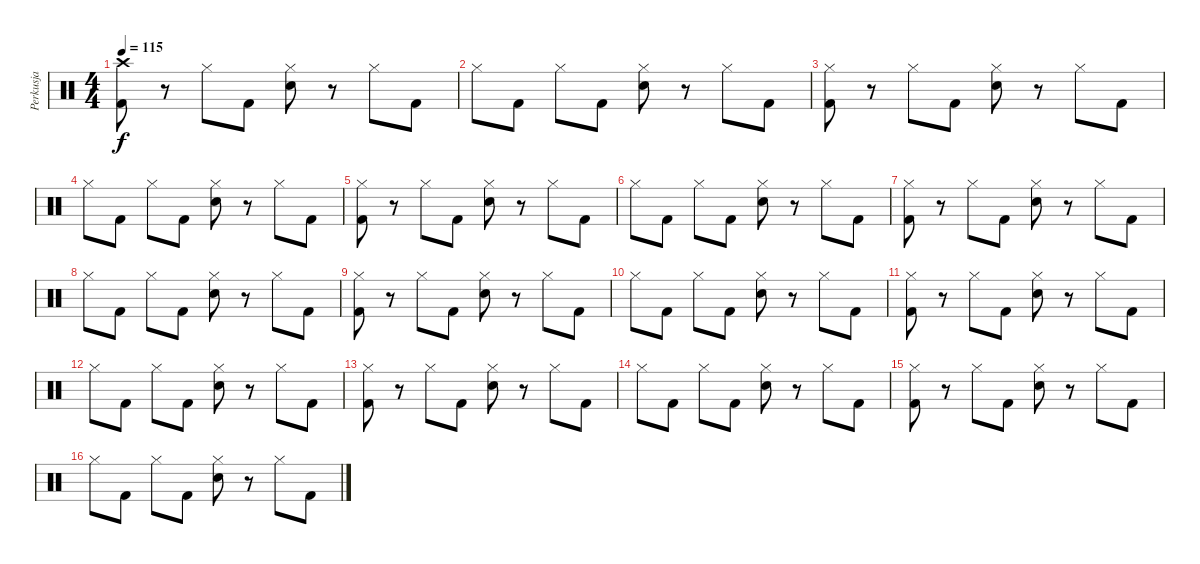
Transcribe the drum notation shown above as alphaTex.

\track ("Perkusja" "Perkusja") {instrument percussion}
\staff {score}
\articulation defaults
\ts (4 4)
\tempo 115
\clef neutral
\ks c
("Crash high (hit)" "Kick (hit) 2").8{dy f} r.8 "Hi-Hat (closed)".8 "Kick (hit) 2".8 ("Hi-Hat (closed)" "Electric Snare (hit)").8 r.8 "Hi-Hat (closed)".8 "Kick (hit) 2".8 |
"Hi-Hat (closed)".8 "Kick (hit) 2".8 "Hi-Hat (closed)".8 "Kick (hit) 2".8 ("Hi-Hat (closed)" "Electric Snare (hit)").8 r.8 "Hi-Hat (closed)".8 "Kick (hit) 2".8 |
("Hi-Hat (closed)" "Kick (hit) 2").8 r.8 "Hi-Hat (closed)".8 "Kick (hit) 2".8 ("Hi-Hat (closed)" "Electric Snare (hit)").8 r.8 "Hi-Hat (closed)".8 "Kick (hit) 2".8 |
"Hi-Hat (closed)".8 "Kick (hit) 2".8 "Hi-Hat (closed)".8 "Kick (hit) 2".8 ("Hi-Hat (closed)" "Electric Snare (hit)").8 r.8 "Hi-Hat (closed)".8 "Kick (hit) 2".8 |
("Hi-Hat (closed)" "Kick (hit) 2").8 r.8 "Hi-Hat (closed)".8 "Kick (hit) 2".8 ("Hi-Hat (closed)" "Electric Snare (hit)").8 r.8 "Hi-Hat (closed)".8 "Kick (hit) 2".8 |
"Hi-Hat (closed)".8 "Kick (hit) 2".8 "Hi-Hat (closed)".8 "Kick (hit) 2".8 ("Hi-Hat (closed)" "Electric Snare (hit)").8 r.8 "Hi-Hat (closed)".8 "Kick (hit) 2".8 |
("Hi-Hat (closed)" "Kick (hit) 2").8 r.8 "Hi-Hat (closed)".8 "Kick (hit) 2".8 ("Hi-Hat (closed)" "Electric Snare (hit)").8 r.8 "Hi-Hat (closed)".8 "Kick (hit) 2".8 |
"Hi-Hat (closed)".8 "Kick (hit) 2".8 "Hi-Hat (closed)".8 "Kick (hit) 2".8 ("Hi-Hat (closed)" "Electric Snare (hit)").8 r.8 "Hi-Hat (closed)".8 "Kick (hit) 2".8 |
("Hi-Hat (closed)" "Kick (hit) 2").8 r.8 "Hi-Hat (closed)".8 "Kick (hit) 2".8 ("Hi-Hat (closed)" "Electric Snare (hit)").8 r.8 "Hi-Hat (closed)".8 "Kick (hit) 2".8 |
"Hi-Hat (closed)".8 "Kick (hit) 2".8 "Hi-Hat (closed)".8 "Kick (hit) 2".8 ("Hi-Hat (closed)" "Electric Snare (hit)").8 r.8 "Hi-Hat (closed)".8 "Kick (hit) 2".8 |
("Hi-Hat (closed)" "Kick (hit) 2").8 r.8 "Hi-Hat (closed)".8 "Kick (hit) 2".8 ("Hi-Hat (closed)" "Electric Snare (hit)").8 r.8 "Hi-Hat (closed)".8 "Kick (hit) 2".8 |
"Hi-Hat (closed)".8 "Kick (hit) 2".8 "Hi-Hat (closed)".8 "Kick (hit) 2".8 ("Hi-Hat (closed)" "Electric Snare (hit)").8 r.8 "Hi-Hat (closed)".8 "Kick (hit) 2".8 |
("Hi-Hat (closed)" "Kick (hit) 2").8 r.8 "Hi-Hat (closed)".8 "Kick (hit) 2".8 ("Hi-Hat (closed)" "Electric Snare (hit)").8 r.8 "Hi-Hat (closed)".8 "Kick (hit) 2".8 |
"Hi-Hat (closed)".8 "Kick (hit) 2".8 "Hi-Hat (closed)".8 "Kick (hit) 2".8 ("Hi-Hat (closed)" "Electric Snare (hit)").8 r.8 "Hi-Hat (closed)".8 "Kick (hit) 2".8 |
("Hi-Hat (closed)" "Kick (hit) 2").8 r.8 "Hi-Hat (closed)".8 "Kick (hit) 2".8 ("Hi-Hat (closed)" "Electric Snare (hit)").8 r.8 "Hi-Hat (closed)".8 "Kick (hit) 2".8 |
"Hi-Hat (closed)".8 "Kick (hit) 2".8 "Hi-Hat (closed)".8 "Kick (hit) 2".8 ("Hi-Hat (closed)" "Electric Snare (hit)").8 r.8 "Hi-Hat (closed)".8 "Kick (hit) 2".8
